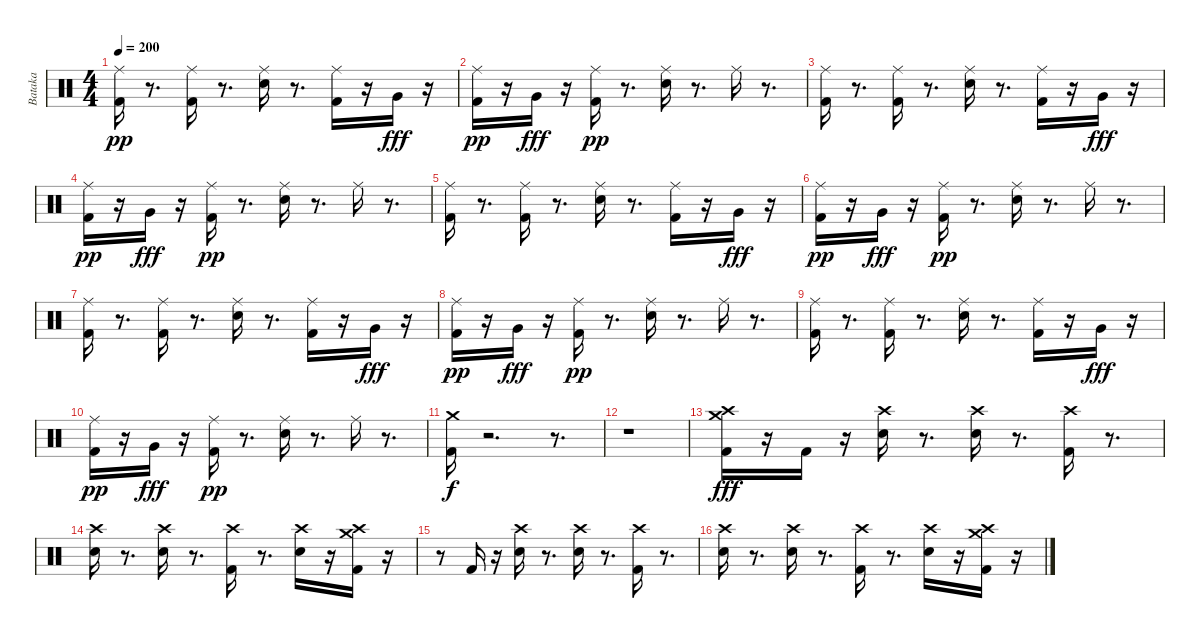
\track ("Bataka" "Bataka") {instrument percussion}
\staff {score}
\articulation defaults
\ts (4 4)
\tempo 200
\clef neutral
\ks c
("Kick (hit) 2" "Ride (middle)").16{dy pp} r.8{d} ("Kick (hit) 2" "Ride (middle)").16 r.8{d} ("Electric Snare (hit)" "Ride (middle)").16 r.8{d} ("Kick (hit) 2" "Ride (middle)").16 r.16 "Very Low Tom (hit)".16{dy fff} r.16 |
("Kick (hit) 2" "Ride (middle)").16{dy pp} r.16 "Very Low Tom (hit)".16{dy fff} r.16 ("Kick (hit) 2" "Ride (middle)").16{dy pp} r.8{d} ("Electric Snare (hit)" "Ride (middle)").16 r.8{d} "Ride (middle)".16 r.8{d} |
("Kick (hit) 2" "Ride (middle)").16 r.8{d} ("Kick (hit) 2" "Ride (middle)").16 r.8{d} ("Electric Snare (hit)" "Ride (middle)").16 r.8{d} ("Kick (hit) 2" "Ride (middle)").16 r.16 "Very Low Tom (hit)".16{dy fff} r.16 |
("Kick (hit) 2" "Ride (middle)").16{dy pp} r.16 "Very Low Tom (hit)".16{dy fff} r.16 ("Kick (hit) 2" "Ride (middle)").16{dy pp} r.8{d} ("Electric Snare (hit)" "Ride (middle)").16 r.8{d} "Ride (middle)".16 r.8{d} |
("Kick (hit) 2" "Ride (middle)").16 r.8{d} ("Kick (hit) 2" "Ride (middle)").16 r.8{d} ("Electric Snare (hit)" "Ride (middle)").16 r.8{d} ("Kick (hit) 2" "Ride (middle)").16 r.16 "Very Low Tom (hit)".16{dy fff} r.16 |
("Kick (hit) 2" "Ride (middle)").16{dy pp} r.16 "Very Low Tom (hit)".16{dy fff} r.16 ("Kick (hit) 2" "Ride (middle)").16{dy pp} r.8{d} ("Electric Snare (hit)" "Ride (middle)").16 r.8{d} "Ride (middle)".16 r.8{d} |
("Kick (hit) 2" "Ride (middle)").16 r.8{d} ("Kick (hit) 2" "Ride (middle)").16 r.8{d} ("Electric Snare (hit)" "Ride (middle)").16 r.8{d} ("Kick (hit) 2" "Ride (middle)").16 r.16 "Very Low Tom (hit)".16{dy fff} r.16 |
("Kick (hit) 2" "Ride (middle)").16{dy pp} r.16 "Very Low Tom (hit)".16{dy fff} r.16 ("Kick (hit) 2" "Ride (middle)").16{dy pp} r.8{d} ("Electric Snare (hit)" "Ride (middle)").16 r.8{d} "Ride (middle)".16 r.8{d} |
("Kick (hit) 2" "Ride (middle)").16 r.8{d} ("Kick (hit) 2" "Ride (middle)").16 r.8{d} ("Electric Snare (hit)" "Ride (middle)").16 r.8{d} ("Kick (hit) 2" "Ride (middle)").16 r.16 "Very Low Tom (hit)".16{dy fff} r.16 |
("Kick (hit) 2" "Ride (middle)").16{dy pp} r.16 "Very Low Tom (hit)".16{dy fff} r.16 ("Kick (hit) 2" "Ride (middle)").16{dy pp} r.8{d} ("Electric Snare (hit)" "Ride (middle)").16 r.8{d} "Ride (middle)".16 r.8{d} |
("Crash medium (hit)" "Kick (hit) 2").16{dy f} r.2{d} r.8{d} |
r.1 |
("Crash medium (hit)" "Crash high (hit)" "Kick (hit) 2").16{dy fff} r.16 "Kick (hit) 2".16 r.16 ("Crash high (hit)" "Electric Snare (hit)").16 r.8{d} ("Crash high (hit)" "Electric Snare (hit)").16 r.8{d} ("Crash high (hit)" "Kick (hit) 2").16 r.8{d} |
("Crash high (hit)" "Electric Snare (hit)").16 r.8{d} ("Crash high (hit)" "Electric Snare (hit)").16 r.8{d} ("Crash high (hit)" "Kick (hit) 2").16 r.8{d} ("Crash high (hit)" "Electric Snare (hit)").16 r.16 ("Crash medium (hit)" "Crash high (hit)" "Kick (hit) 2").16 r.16 |
r.8 "Kick (hit) 2".16 r.16 ("Crash high (hit)" "Electric Snare (hit)").16 r.8{d} ("Crash high (hit)" "Electric Snare (hit)").16 r.8{d} ("Crash high (hit)" "Kick (hit) 2").16 r.8{d} |
("Crash high (hit)" "Electric Snare (hit)").16 r.8{d} ("Crash high (hit)" "Electric Snare (hit)").16 r.8{d} ("Crash high (hit)" "Kick (hit) 2").16 r.8{d} ("Crash high (hit)" "Electric Snare (hit)").16 r.16 ("Crash medium (hit)" "Crash high (hit)" "Kick (hit) 2").16 r.16
